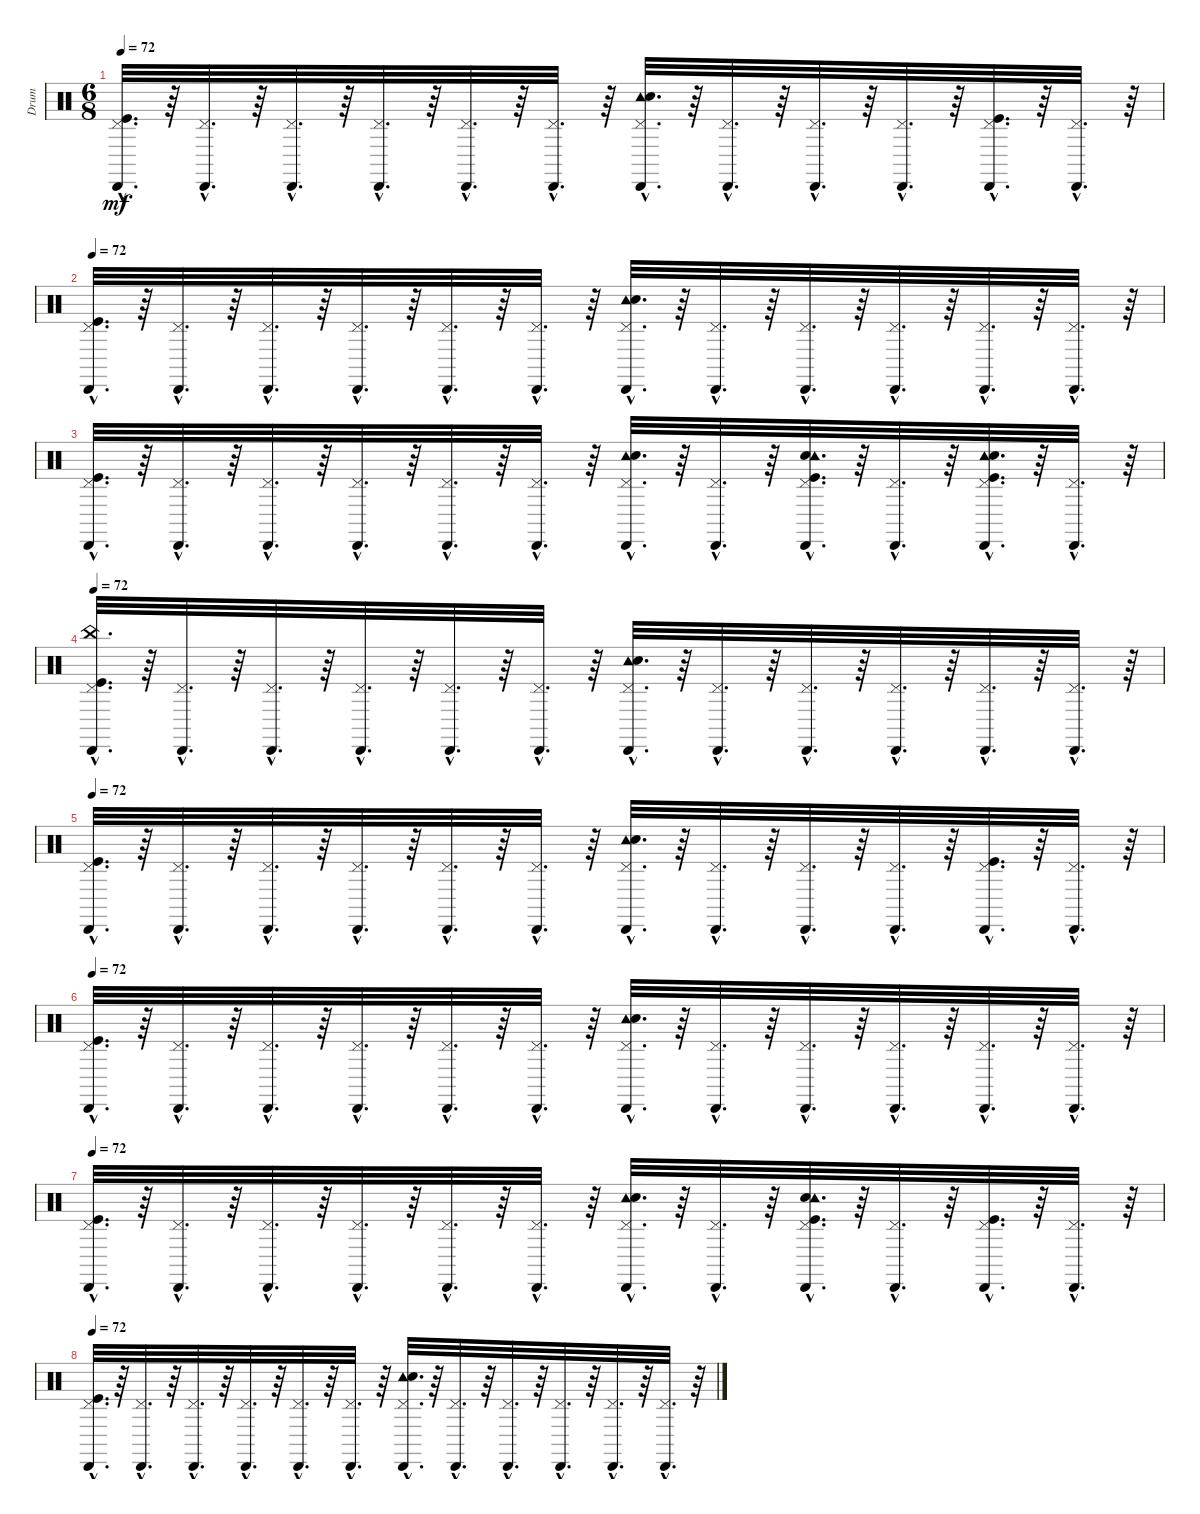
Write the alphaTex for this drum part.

\track ("Drum" "Drum") {instrument percussion}
\staff {score}
\articulation defaults
\ts (6 8)
\tempo 72
\clef neutral
\ks c
("Cabasa (hit)"{hac} "Pedal Hi-Hat (hit)"{hac} "Kick (hit)"{hac}).32{d dy mf} r.64 ("Cabasa (hit)"{hac} "Pedal Hi-Hat (hit)"{hac}).32{d} r.64 ("Cabasa (hit)"{hac} "Pedal Hi-Hat (hit)"{hac}).32{d} r.64 ("Cabasa (hit)"{hac} "Pedal Hi-Hat (hit)"{hac}).32{d} r.64 ("Cabasa (hit)"{hac} "Pedal Hi-Hat (hit)"{hac}).32{d} r.64 ("Cabasa (hit)"{hac} "Pedal Hi-Hat (hit)"{hac}).32{d} r.64 ("Cabasa (hit)"{hac} "Pedal Hi-Hat (hit)"{hac} "Tambourine (hit)"{hac} "Electric Snare (hit)"{hac}).32{d} r.64 ("Cabasa (hit)"{hac} "Pedal Hi-Hat (hit)"{hac}).32{d} r.64 ("Cabasa (hit)"{hac} "Pedal Hi-Hat (hit)"{hac}).32{d} r.64 ("Cabasa (hit)"{hac} "Pedal Hi-Hat (hit)"{hac}).32{d} r.64 ("Kick (hit)"{hac} "Cabasa (hit)"{hac} "Pedal Hi-Hat (hit)"{hac}).32{d} r.64 ("Cabasa (hit)"{hac} "Pedal Hi-Hat (hit)"{hac}).32{d} r.64 |
\tempo 72
("Cabasa (hit)"{hac} "Pedal Hi-Hat (hit)"{hac} "Kick (hit)"{hac}).32{d} r.64 ("Cabasa (hit)"{hac} "Pedal Hi-Hat (hit)"{hac}).32{d} r.64 ("Cabasa (hit)"{hac} "Pedal Hi-Hat (hit)"{hac}).32{d} r.64 ("Cabasa (hit)"{hac} "Pedal Hi-Hat (hit)"{hac}).32{d} r.64 ("Cabasa (hit)"{hac} "Pedal Hi-Hat (hit)"{hac}).32{d} r.64 ("Cabasa (hit)"{hac} "Pedal Hi-Hat (hit)"{hac}).32{d} r.64 ("Cabasa (hit)"{hac} "Pedal Hi-Hat (hit)"{hac} "Tambourine (hit)"{hac} "Electric Snare (hit)"{hac}).32{d} r.64 ("Cabasa (hit)"{hac} "Pedal Hi-Hat (hit)"{hac}).32{d} r.64 ("Cabasa (hit)"{hac} "Pedal Hi-Hat (hit)"{hac}).32{d} r.64 ("Cabasa (hit)"{hac} "Pedal Hi-Hat (hit)"{hac}).32{d} r.64 ("Cabasa (hit)"{hac} "Pedal Hi-Hat (hit)"{hac}).32{d} r.64 ("Cabasa (hit)"{hac} "Pedal Hi-Hat (hit)"{hac}).32{d} r.64 |
("Cabasa (hit)"{hac} "Pedal Hi-Hat (hit)"{hac} "Kick (hit)"{hac}).32{d} r.64 ("Cabasa (hit)"{hac} "Pedal Hi-Hat (hit)"{hac}).32{d} r.64 ("Cabasa (hit)"{hac} "Pedal Hi-Hat (hit)"{hac}).32{d} r.64 ("Cabasa (hit)"{hac} "Pedal Hi-Hat (hit)"{hac}).32{d} r.64 ("Cabasa (hit)"{hac} "Pedal Hi-Hat (hit)"{hac}).32{d} r.64 ("Cabasa (hit)"{hac} "Pedal Hi-Hat (hit)"{hac}).32{d} r.64 ("Cabasa (hit)"{hac} "Pedal Hi-Hat (hit)"{hac} "Tambourine (hit)"{hac} "Electric Snare (hit)"{hac}).32{d} r.64 ("Cabasa (hit)"{hac} "Pedal Hi-Hat (hit)"{hac}).32{d} r.64 ("Kick (hit)"{hac} "Electric Snare (hit)"{hac} "Tambourine (hit)"{hac} "Cabasa (hit)"{hac} "Pedal Hi-Hat (hit)"{hac}).32{d} r.64 ("Cabasa (hit)"{hac} "Pedal Hi-Hat (hit)"{hac}).32{d} r.64 ("Kick (hit)"{hac} "Cabasa (hit)"{hac} "Pedal Hi-Hat (hit)"{hac} "Tambourine (hit)"{hac} "Electric Snare (hit)"{hac}).32{d} r.64 ("Cabasa (hit)"{hac} "Pedal Hi-Hat (hit)"{hac}).32{d} r.64 |
\tempo 72
("China (hit)"{hac} "Cabasa (hit)"{hac} "Pedal Hi-Hat (hit)"{hac} "Kick (hit)"{hac}).32{d} r.64 ("Cabasa (hit)"{hac} "Pedal Hi-Hat (hit)"{hac}).32{d} r.64 ("Cabasa (hit)"{hac} "Pedal Hi-Hat (hit)"{hac}).32{d} r.64 ("Cabasa (hit)"{hac} "Pedal Hi-Hat (hit)"{hac}).32{d} r.64 ("Cabasa (hit)"{hac} "Pedal Hi-Hat (hit)"{hac}).32{d} r.64 ("Cabasa (hit)"{hac} "Pedal Hi-Hat (hit)"{hac}).32{d} r.64 ("Cabasa (hit)"{hac} "Pedal Hi-Hat (hit)"{hac} "Tambourine (hit)"{hac} "Electric Snare (hit)"{hac}).32{d} r.64 ("Cabasa (hit)"{hac} "Pedal Hi-Hat (hit)"{hac}).32{d} r.64 ("Cabasa (hit)"{hac} "Pedal Hi-Hat (hit)"{hac}).32{d} r.64 ("Cabasa (hit)"{hac} "Pedal Hi-Hat (hit)"{hac}).32{d} r.64 ("Cabasa (hit)"{hac} "Pedal Hi-Hat (hit)"{hac}).32{d} r.64 ("Cabasa (hit)"{hac} "Pedal Hi-Hat (hit)"{hac}).32{d} r.64 |
\tempo 72
("Cabasa (hit)"{hac} "Pedal Hi-Hat (hit)"{hac} "Kick (hit)"{hac}).32{d} r.64 ("Cabasa (hit)"{hac} "Pedal Hi-Hat (hit)"{hac}).32{d} r.64 ("Cabasa (hit)"{hac} "Pedal Hi-Hat (hit)"{hac}).32{d} r.64 ("Cabasa (hit)"{hac} "Pedal Hi-Hat (hit)"{hac}).32{d} r.64 ("Cabasa (hit)"{hac} "Pedal Hi-Hat (hit)"{hac}).32{d} r.64 ("Cabasa (hit)"{hac} "Pedal Hi-Hat (hit)"{hac}).32{d} r.64 ("Cabasa (hit)"{hac} "Pedal Hi-Hat (hit)"{hac} "Tambourine (hit)"{hac} "Electric Snare (hit)"{hac}).32{d} r.64 ("Cabasa (hit)"{hac} "Pedal Hi-Hat (hit)"{hac}).32{d} r.64 ("Cabasa (hit)"{hac} "Pedal Hi-Hat (hit)"{hac}).32{d} r.64 ("Cabasa (hit)"{hac} "Pedal Hi-Hat (hit)"{hac}).32{d} r.64 ("Kick (hit)"{hac} "Cabasa (hit)"{hac} "Pedal Hi-Hat (hit)"{hac}).32{d} r.64 ("Cabasa (hit)"{hac} "Pedal Hi-Hat (hit)"{hac}).32{d} r.64 |
\tempo 72
("Cabasa (hit)"{hac} "Pedal Hi-Hat (hit)"{hac} "Kick (hit)"{hac}).32{d} r.64 ("Cabasa (hit)"{hac} "Pedal Hi-Hat (hit)"{hac}).32{d} r.64 ("Cabasa (hit)"{hac} "Pedal Hi-Hat (hit)"{hac}).32{d} r.64 ("Cabasa (hit)"{hac} "Pedal Hi-Hat (hit)"{hac}).32{d} r.64 ("Cabasa (hit)"{hac} "Pedal Hi-Hat (hit)"{hac}).32{d} r.64 ("Cabasa (hit)"{hac} "Pedal Hi-Hat (hit)"{hac}).32{d} r.64 ("Cabasa (hit)"{hac} "Pedal Hi-Hat (hit)"{hac} "Tambourine (hit)"{hac} "Electric Snare (hit)"{hac}).32{d} r.64 ("Cabasa (hit)"{hac} "Pedal Hi-Hat (hit)"{hac}).32{d} r.64 ("Cabasa (hit)"{hac} "Pedal Hi-Hat (hit)"{hac}).32{d} r.64 ("Cabasa (hit)"{hac} "Pedal Hi-Hat (hit)"{hac}).32{d} r.64 ("Cabasa (hit)"{hac} "Pedal Hi-Hat (hit)"{hac}).32{d} r.64 ("Cabasa (hit)"{hac} "Pedal Hi-Hat (hit)"{hac}).32{d} r.64 |
\tempo 72
("Cabasa (hit)"{hac} "Pedal Hi-Hat (hit)"{hac} "Kick (hit)"{hac}).32{d} r.64 ("Cabasa (hit)"{hac} "Pedal Hi-Hat (hit)"{hac}).32{d} r.64 ("Cabasa (hit)"{hac} "Pedal Hi-Hat (hit)"{hac}).32{d} r.64 ("Cabasa (hit)"{hac} "Pedal Hi-Hat (hit)"{hac}).32{d} r.64 ("Cabasa (hit)"{hac} "Pedal Hi-Hat (hit)"{hac}).32{d} r.64 ("Cabasa (hit)"{hac} "Pedal Hi-Hat (hit)"{hac}).32{d} r.64 ("Cabasa (hit)"{hac} "Pedal Hi-Hat (hit)"{hac} "Tambourine (hit)"{hac} "Electric Snare (hit)"{hac}).32{d} r.64 ("Cabasa (hit)"{hac} "Pedal Hi-Hat (hit)"{hac}).32{d} r.64 ("Kick (hit)"{hac} "Electric Snare (hit)"{hac} "Tambourine (hit)"{hac} "Cabasa (hit)"{hac} "Pedal Hi-Hat (hit)"{hac}).32{d} r.64 ("Cabasa (hit)"{hac} "Pedal Hi-Hat (hit)"{hac}).32{d} r.64 ("Kick (hit)"{hac} "Cabasa (hit)"{hac} "Pedal Hi-Hat (hit)"{hac}).32{d} r.64 ("Cabasa (hit)"{hac} "Pedal Hi-Hat (hit)"{hac}).32{d} r.64 |
\tempo 72
("Cabasa (hit)"{hac} "Pedal Hi-Hat (hit)"{hac} "Kick (hit)"{hac}).32{d} r.64 ("Cabasa (hit)"{hac} "Pedal Hi-Hat (hit)"{hac}).32{d} r.64 ("Cabasa (hit)"{hac} "Pedal Hi-Hat (hit)"{hac}).32{d} r.64 ("Cabasa (hit)"{hac} "Pedal Hi-Hat (hit)"{hac}).32{d} r.64 ("Cabasa (hit)"{hac} "Pedal Hi-Hat (hit)"{hac}).32{d} r.64 ("Cabasa (hit)"{hac} "Pedal Hi-Hat (hit)"{hac}).32{d} r.64 ("Cabasa (hit)"{hac} "Pedal Hi-Hat (hit)"{hac} "Tambourine (hit)"{hac} "Electric Snare (hit)"{hac}).32{d} r.64 ("Cabasa (hit)"{hac} "Pedal Hi-Hat (hit)"{hac}).32{d} r.64 ("Cabasa (hit)"{hac} "Pedal Hi-Hat (hit)"{hac}).32{d} r.64 ("Cabasa (hit)"{hac} "Pedal Hi-Hat (hit)"{hac}).32{d} r.64 ("Cabasa (hit)"{hac} "Pedal Hi-Hat (hit)"{hac}).32{d} r.64 ("Cabasa (hit)"{hac} "Pedal Hi-Hat (hit)"{hac}).32{d} r.64
